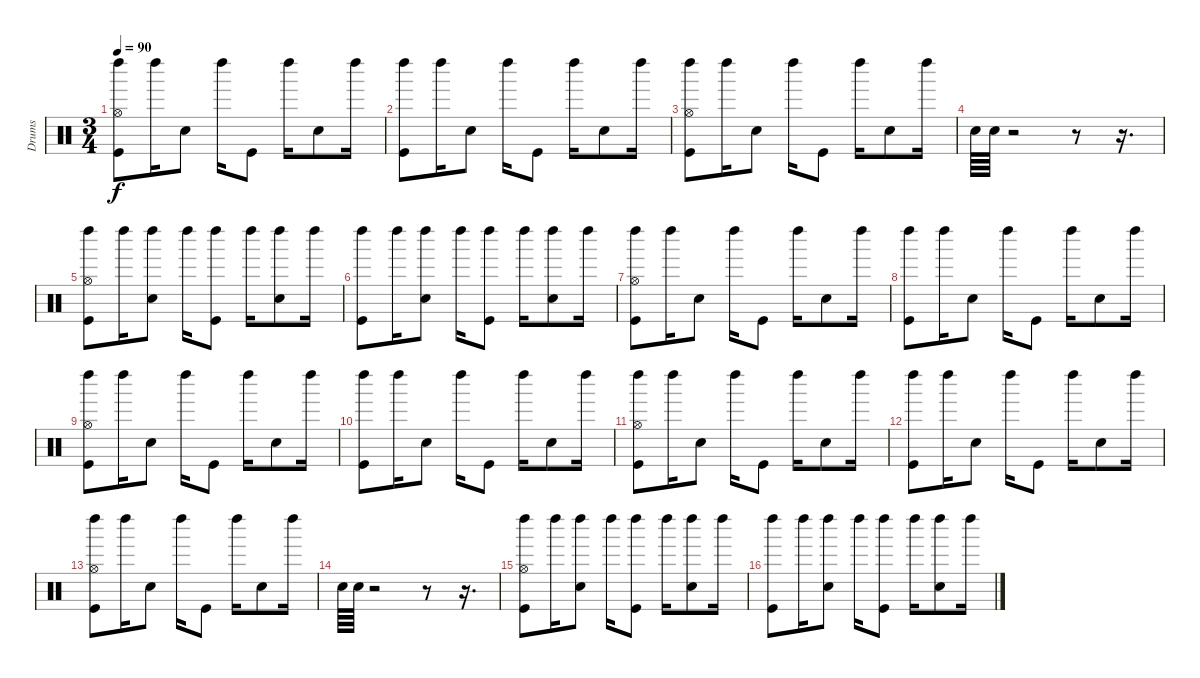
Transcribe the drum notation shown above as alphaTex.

\track ("Drums" "Drums") {instrument percussion}
\staff {score}
\articulation defaults
\ts (3 4)
\tempo 90
\clef neutral
\ks c
("Left Maraca (hit)" "Hi-Hat (open)" "Kick (hit)").8{dy f} "Left Maraca (hit)".16 "Snare (hit) 2".8 "Left Maraca (hit)".16 "Kick (hit)".8 "Left Maraca (hit)".16 "Snare (hit) 2".8 "Left Maraca (hit)".16 |
("Left Maraca (hit)" "Kick (hit)").8 "Left Maraca (hit)".16 "Snare (hit) 2".8 "Left Maraca (hit)".16 "Kick (hit)".8 "Left Maraca (hit)".16 "Snare (hit) 2".8 "Left Maraca (hit)".16 |
("Left Maraca (hit)" "Hi-Hat (open)" "Kick (hit)").8 "Left Maraca (hit)".16 "Snare (hit) 2".8 "Left Maraca (hit)".16 "Kick (hit)".8 "Left Maraca (hit)".16 "Snare (hit) 2".8 "Left Maraca (hit)".16 |
"Snare (hit) 2".64 "Snare (hit) 2".64 r.2 r.8 r.16{d} |
("Left Maraca (hit)" "Hi-Hat (open)" "Kick (hit)").8 "Left Maraca (hit)".16 ("Left Maraca (hit)" "Snare (hit) 2").8 "Left Maraca (hit)".16 ("Left Maraca (hit)" "Kick (hit)").8 "Left Maraca (hit)".16 ("Left Maraca (hit)" "Snare (hit) 2").8 "Left Maraca (hit)".16 |
("Left Maraca (hit)" "Kick (hit)").8 "Left Maraca (hit)".16 ("Left Maraca (hit)" "Snare (hit) 2").8 "Left Maraca (hit)".16 ("Left Maraca (hit)" "Kick (hit)").8 "Left Maraca (hit)".16 ("Left Maraca (hit)" "Snare (hit) 2").8 "Left Maraca (hit)".16 |
("Left Maraca (hit)" "Hi-Hat (open)" "Kick (hit)").8 "Left Maraca (hit)".16 "Snare (hit) 2".8 "Left Maraca (hit)".16 "Kick (hit)".8 "Left Maraca (hit)".16 "Snare (hit) 2".8 "Left Maraca (hit)".16 |
("Left Maraca (hit)" "Kick (hit)").8 "Left Maraca (hit)".16 "Snare (hit) 2".8 "Left Maraca (hit)".16 "Kick (hit)".8 "Left Maraca (hit)".16 "Snare (hit) 2".8 "Left Maraca (hit)".16 |
("Left Maraca (hit)" "Hi-Hat (open)" "Kick (hit)").8 "Left Maraca (hit)".16 "Snare (hit) 2".8 "Left Maraca (hit)".16 "Kick (hit)".8 "Left Maraca (hit)".16 "Snare (hit) 2".8 "Left Maraca (hit)".16 |
("Left Maraca (hit)" "Kick (hit)").8 "Left Maraca (hit)".16 "Snare (hit) 2".8 "Left Maraca (hit)".16 "Kick (hit)".8 "Left Maraca (hit)".16 "Snare (hit) 2".8 "Left Maraca (hit)".16 |
("Left Maraca (hit)" "Hi-Hat (open)" "Kick (hit)").8 "Left Maraca (hit)".16 "Snare (hit) 2".8 "Left Maraca (hit)".16 "Kick (hit)".8 "Left Maraca (hit)".16 "Snare (hit) 2".8 "Left Maraca (hit)".16 |
("Left Maraca (hit)" "Kick (hit)").8 "Left Maraca (hit)".16 "Snare (hit) 2".8 "Left Maraca (hit)".16 "Kick (hit)".8 "Left Maraca (hit)".16 "Snare (hit) 2".8 "Left Maraca (hit)".16 |
("Left Maraca (hit)" "Hi-Hat (open)" "Kick (hit)").8 "Left Maraca (hit)".16 "Snare (hit) 2".8 "Left Maraca (hit)".16 "Kick (hit)".8 "Left Maraca (hit)".16 "Snare (hit) 2".8 "Left Maraca (hit)".16 |
"Snare (hit) 2".64 "Snare (hit) 2".64 r.2 r.8 r.16{d} |
("Left Maraca (hit)" "Hi-Hat (open)" "Kick (hit)").8 "Left Maraca (hit)".16 ("Left Maraca (hit)" "Snare (hit) 2").8 "Left Maraca (hit)".16 ("Left Maraca (hit)" "Kick (hit)").8 "Left Maraca (hit)".16 ("Left Maraca (hit)" "Snare (hit) 2").8 "Left Maraca (hit)".16 |
("Left Maraca (hit)" "Kick (hit)").8 "Left Maraca (hit)".16 ("Left Maraca (hit)" "Snare (hit) 2").8 "Left Maraca (hit)".16 ("Left Maraca (hit)" "Kick (hit)").8 "Left Maraca (hit)".16 ("Left Maraca (hit)" "Snare (hit) 2").8 "Left Maraca (hit)".16
